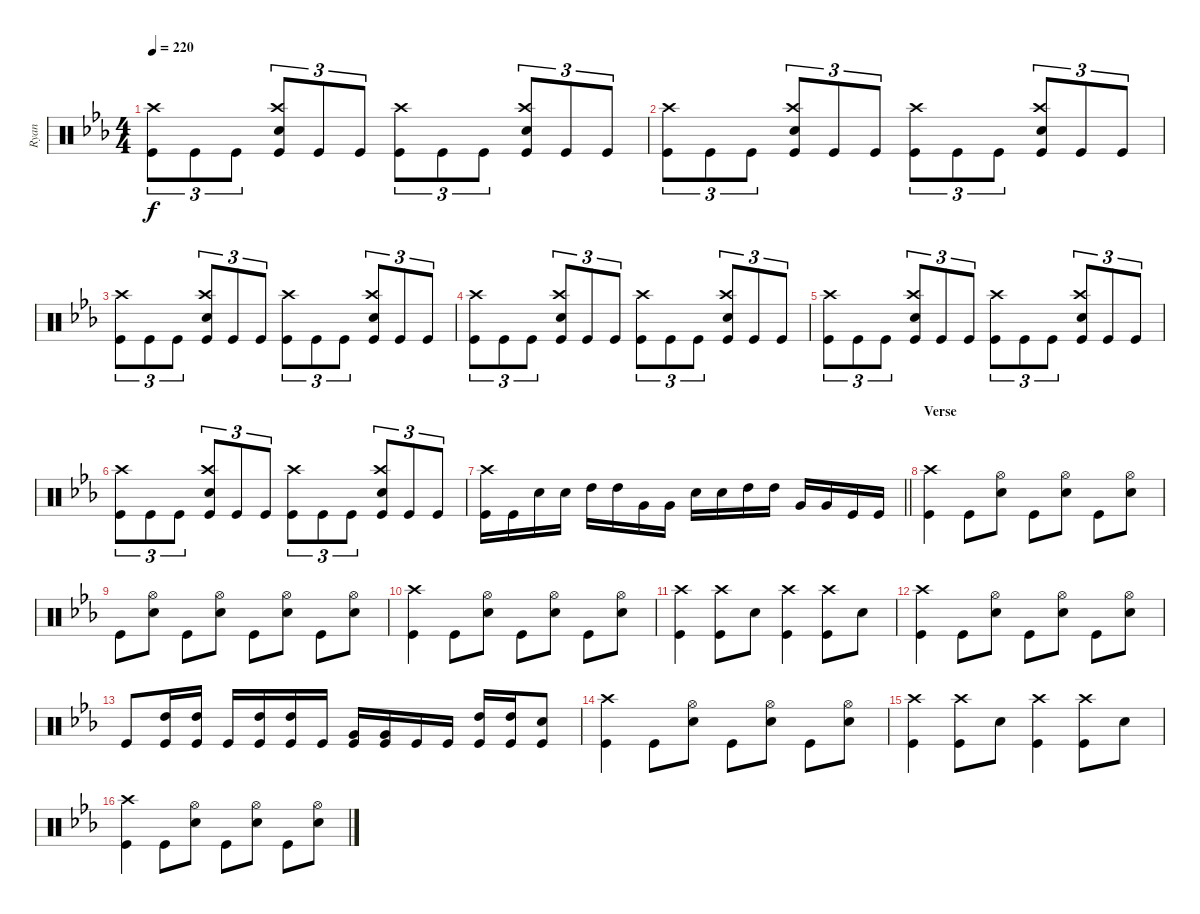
\track ("Ryan" "Ryan") {instrument percussion}
\staff {score}
\articulation defaults
\ts (4 4)
\tempo 220
\clef neutral
\ks cminor
("Kick (hit)" "Crash high (hit)").8{tu (3 2) dy f} "Kick (hit)".8{tu (3 2)} "Kick (hit)".8{tu (3 2)} ("Kick (hit)" "Crash high (hit)" "Snare (hit) 2").8{tu (3 2)} "Kick (hit)".8{tu (3 2)} "Kick (hit)".8{tu (3 2)} ("Kick (hit)" "Crash high (hit)").8{tu (3 2)} "Kick (hit)".8{tu (3 2)} "Kick (hit)".8{tu (3 2)} ("Kick (hit)" "Crash high (hit)" "Snare (hit) 2").8{tu (3 2)} "Kick (hit)".8{tu (3 2)} "Kick (hit)".8{tu (3 2)} |
("Kick (hit)" "Crash high (hit)").8{tu (3 2)} "Kick (hit)".8{tu (3 2)} "Kick (hit)".8{tu (3 2)} ("Kick (hit)" "Crash high (hit)" "Snare (hit) 2").8{tu (3 2)} "Kick (hit)".8{tu (3 2)} "Kick (hit)".8{tu (3 2)} ("Kick (hit)" "Crash high (hit)").8{tu (3 2)} "Kick (hit)".8{tu (3 2)} "Kick (hit)".8{tu (3 2)} ("Kick (hit)" "Crash high (hit)" "Snare (hit) 2").8{tu (3 2)} "Kick (hit)".8{tu (3 2)} "Kick (hit)".8{tu (3 2)} |
("Kick (hit)" "Crash high (hit)").8{tu (3 2)} "Kick (hit)".8{tu (3 2)} "Kick (hit)".8{tu (3 2)} ("Kick (hit)" "Crash high (hit)" "Snare (hit) 2").8{tu (3 2)} "Kick (hit)".8{tu (3 2)} "Kick (hit)".8{tu (3 2)} ("Kick (hit)" "Crash high (hit)").8{tu (3 2)} "Kick (hit)".8{tu (3 2)} "Kick (hit)".8{tu (3 2)} ("Kick (hit)" "Crash high (hit)" "Snare (hit) 2").8{tu (3 2)} "Kick (hit)".8{tu (3 2)} "Kick (hit)".8{tu (3 2)} |
("Kick (hit)" "Crash high (hit)").8{tu (3 2)} "Kick (hit)".8{tu (3 2)} "Kick (hit)".8{tu (3 2)} ("Kick (hit)" "Crash high (hit)" "Snare (hit) 2").8{tu (3 2)} "Kick (hit)".8{tu (3 2)} "Kick (hit)".8{tu (3 2)} ("Kick (hit)" "Crash high (hit)").8{tu (3 2)} "Kick (hit)".8{tu (3 2)} "Kick (hit)".8{tu (3 2)} ("Kick (hit)" "Crash high (hit)" "Snare (hit) 2").8{tu (3 2)} "Kick (hit)".8{tu (3 2)} "Kick (hit)".8{tu (3 2)} |
("Kick (hit)" "Crash high (hit)").8{tu (3 2)} "Kick (hit)".8{tu (3 2)} "Kick (hit)".8{tu (3 2)} ("Kick (hit)" "Crash high (hit)" "Snare (hit) 2").8{tu (3 2)} "Kick (hit)".8{tu (3 2)} "Kick (hit)".8{tu (3 2)} ("Kick (hit)" "Crash high (hit)").8{tu (3 2)} "Kick (hit)".8{tu (3 2)} "Kick (hit)".8{tu (3 2)} ("Kick (hit)" "Crash high (hit)" "Snare (hit) 2").8{tu (3 2)} "Kick (hit)".8{tu (3 2)} "Kick (hit)".8{tu (3 2)} |
("Kick (hit)" "Crash high (hit)").8{tu (3 2)} "Kick (hit)".8{tu (3 2)} "Kick (hit)".8{tu (3 2)} ("Kick (hit)" "Crash high (hit)" "Snare (hit) 2").8{tu (3 2)} "Kick (hit)".8{tu (3 2)} "Kick (hit)".8{tu (3 2)} ("Kick (hit)" "Crash high (hit)").8{tu (3 2)} "Kick (hit)".8{tu (3 2)} "Kick (hit)".8{tu (3 2)} ("Kick (hit)" "Crash high (hit)" "Snare (hit) 2").8{tu (3 2)} "Kick (hit)".8{tu (3 2)} "Kick (hit)".8{tu (3 2)} |
\barLineRight lightlight
("Kick (hit)" "Crash high (hit)").16 "Kick (hit)".16 "Snare (hit) 2".16 "Snare (hit) 2".16 "High Tom (hit)".16 "High Tom (hit)".16 "Very Low Tom (hit)".16 "Very Low Tom (hit)".16 "Snare (hit) 2".16 "Snare (hit) 2".16 "High Tom (hit)".16 "High Tom (hit)".16 "Very Low Tom (hit)".16 "Very Low Tom (hit)".16 "Kick (hit)".16 "Kick (hit)".16 |
\section ("" "Verse")
("Kick (hit)" "Crash high (hit)").4 "Kick (hit)".8 ("Snare (hit) 2" "Hi-Hat (open)").8 "Kick (hit)".8 ("Snare (hit) 2" "Hi-Hat (open)").8 "Kick (hit)".8 ("Snare (hit) 2" "Hi-Hat (open)").8 |
"Kick (hit)".8 ("Snare (hit) 2" "Hi-Hat (open)").8 "Kick (hit)".8 ("Snare (hit) 2" "Hi-Hat (open)").8 "Kick (hit)".8 ("Snare (hit) 2" "Hi-Hat (open)").8 "Kick (hit)".8 ("Snare (hit) 2" "Hi-Hat (open)").8 |
("Kick (hit)" "Crash high (hit)").4 "Kick (hit)".8 ("Snare (hit) 2" "Hi-Hat (open)").8 "Kick (hit)".8 ("Snare (hit) 2" "Hi-Hat (open)").8 "Kick (hit)".8 ("Snare (hit) 2" "Hi-Hat (open)").8 |
("Kick (hit)" "Crash high (hit)").4 ("Crash high (hit)" "Kick (hit)").8 "Snare (hit) 2".8 ("Kick (hit)" "Crash high (hit)").4 ("Crash high (hit)" "Kick (hit)").8 "Snare (hit) 2".8 |
("Kick (hit)" "Crash high (hit)").4 "Kick (hit)".8 ("Snare (hit) 2" "Hi-Hat (open)").8 "Kick (hit)".8 ("Snare (hit) 2" "Hi-Hat (open)").8 "Kick (hit)".8 ("Snare (hit) 2" "Hi-Hat (open)").8 |
"Kick (hit)".8 ("High Tom (hit)" "Kick (hit)").16 ("High Tom (hit)" "Kick (hit)").16 "Kick (hit)".16 ("High Tom (hit)" "Kick (hit)").16 ("High Tom (hit)" "Kick (hit)").16 "Kick (hit)".16 ("Very Low Tom (hit)" "Kick (hit)").16 ("Very Low Tom (hit)" "Kick (hit)").16 "Kick (hit)".16 "Kick (hit)".16 ("High Tom (hit)" "Kick (hit)").16 ("High Tom (hit)" "Kick (hit)").16 ("Snare (hit) 2" "Kick (hit)").8 |
("Kick (hit)" "Crash high (hit)").4 "Kick (hit)".8 ("Snare (hit) 2" "Hi-Hat (open)").8 "Kick (hit)".8 ("Snare (hit) 2" "Hi-Hat (open)").8 "Kick (hit)".8 ("Snare (hit) 2" "Hi-Hat (open)").8 |
("Kick (hit)" "Crash high (hit)").4 ("Crash high (hit)" "Kick (hit)").8 "Snare (hit) 2".8 ("Kick (hit)" "Crash high (hit)").4 ("Crash high (hit)" "Kick (hit)").8 "Snare (hit) 2".8 |
("Kick (hit)" "Crash high (hit)").4 "Kick (hit)".8 ("Snare (hit) 2" "Hi-Hat (open)").8 "Kick (hit)".8 ("Snare (hit) 2" "Hi-Hat (open)").8 "Kick (hit)".8 ("Snare (hit) 2" "Hi-Hat (open)").8
